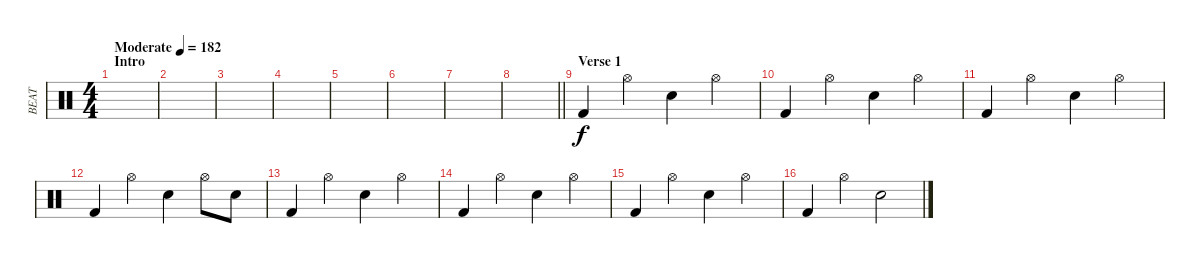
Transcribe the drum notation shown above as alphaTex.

\track ("BEAT" "BEAT") {instrument percussion}
\staff {score}
\articulation defaults
\ts (4 4)
\section ("" "Intro")
\tempo (182 "Moderate")
\clef neutral
\ks c
|
|
|
|
|
|
|
\barLineRight lightlight
|
\section ("" "Verse 1")
"Kick (hit) 2".4 "Hi-Hat (open)".4 "Electric Snare (hit)".4 "Hi-Hat (open)".4 |
"Kick (hit) 2".4 "Hi-Hat (open)".4 "Electric Snare (hit)".4 "Hi-Hat (open)".4 |
"Kick (hit) 2".4 "Hi-Hat (open)".4 "Electric Snare (hit)".4 "Hi-Hat (open)".4 |
"Kick (hit) 2".4 "Hi-Hat (open)".4 "Electric Snare (hit)".4 "Hi-Hat (open)".8 "Electric Snare (hit)".8 |
"Kick (hit) 2".4 "Hi-Hat (open)".4 "Electric Snare (hit)".4 "Hi-Hat (open)".4 |
"Kick (hit) 2".4 "Hi-Hat (open)".4 "Electric Snare (hit)".4 "Hi-Hat (open)".4 |
"Kick (hit) 2".4 "Hi-Hat (open)".4 "Electric Snare (hit)".4 "Hi-Hat (open)".4 |
"Kick (hit) 2".4 "Hi-Hat (open)".4 "Electric Snare (hit)".2
